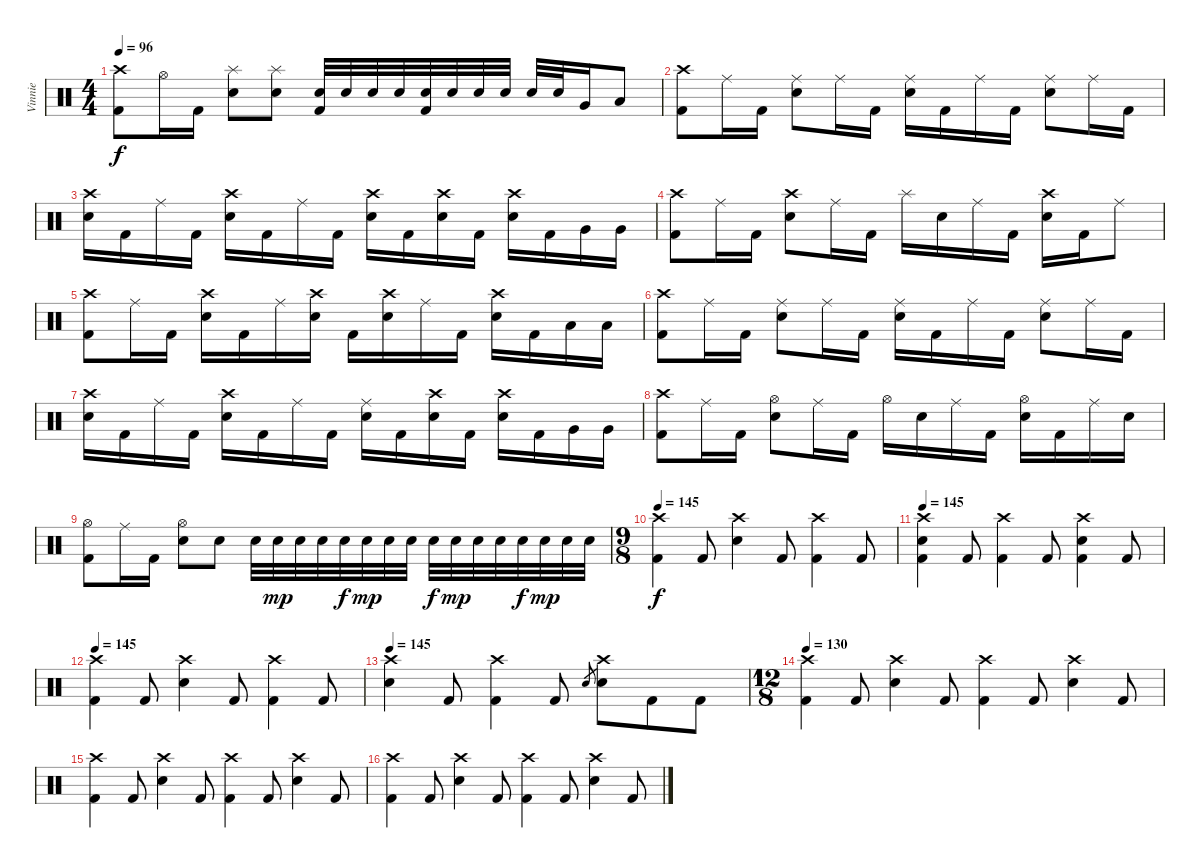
\track ("Vinnie" "Vinnie") {instrument percussion}
\staff {score}
\articulation defaults
\ts (4 4)
\tempo 96
\clef neutral
\ks c
("Crash high (hit)" "Kick (hit) 2").8{dy f} "Hi-Hat (open)".16 "Kick (hit) 2".16 ("Splash (hit)" "Electric Snare (hit)").8 ("Splash (hit)" "Electric Snare (hit)").8 ("Electric Snare (hit)" "Kick (hit) 2").32 "Electric Snare (hit)".32 "Electric Snare (hit)".32 "Electric Snare (hit)".32 ("Electric Snare (hit)" "Kick (hit) 2").32 "Electric Snare (hit)".32 "Electric Snare (hit)".32 "Electric Snare (hit)".32 "Electric Snare (hit)".32 "Electric Snare (hit)".32 "Very Low Tom (hit)".16 "Low Floor Tom (hit)".8 |
("Crash high (hit)" "Kick (hit) 2").8 "Ride (middle)".16 "Kick (hit) 2".16 ("Ride (middle)" "Electric Snare (hit)").8 "Ride (middle)".16 "Kick (hit) 2".16 ("Ride (middle)" "Electric Snare (hit)").16 "Kick (hit) 2".16 "Ride (middle)".16 "Kick (hit) 2".16 ("Ride (middle)" "Electric Snare (hit)").8 "Ride (middle)".16 "Kick (hit) 2".16 |
("Crash high (hit)" "Electric Snare (hit)").16 "Kick (hit) 2".16 "Ride (middle)".16 "Kick (hit) 2".16 ("Crash high (hit)" "Electric Snare (hit)").16 "Kick (hit) 2".16 "Ride (middle)".16 "Kick (hit) 2".16 ("Crash high (hit)" "Electric Snare (hit)").16 "Kick (hit) 2".16 ("Crash high (hit)" "Electric Snare (hit)").16 "Kick (hit) 2".16 ("Crash high (hit)" "Electric Snare (hit)").16 "Kick (hit) 2".16 "Very Low Tom (hit)".16 "Very Low Tom (hit)".16 |
("Crash high (hit)" "Kick (hit) 2").8 "Ride (middle)".16 "Kick (hit) 2".16 ("Crash high (hit)" "Electric Snare (hit)").8 "Ride (middle)".16 "Kick (hit) 2".16 "Splash (hit)".16 "Electric Snare (hit)".16 "Ride (middle)".16 "Kick (hit) 2".16 ("Crash high (hit)" "Electric Snare (hit)").16 "Kick (hit) 2".16 "Ride (middle)".8 |
("Crash high (hit)" "Kick (hit) 2").8 "Ride (middle)".16 "Kick (hit) 2".16 ("Crash high (hit)" "Electric Snare (hit)").16 "Kick (hit) 2".16 "Ride (middle)".16 ("Crash high (hit)" "Electric Snare (hit)").16 "Kick (hit) 2".16 ("Crash high (hit)" "Electric Snare (hit)").16 "Ride (middle)".16 "Kick (hit) 2".16 ("Crash high (hit)" "Electric Snare (hit)").16 "Kick (hit) 2".16 "Low Tom (hit)".16 "Low Tom (hit)".16 |
("Crash high (hit)" "Kick (hit) 2").8 "Ride (middle)".16 "Kick (hit) 2".16 ("Ride (middle)" "Electric Snare (hit)").8 "Ride (middle)".16 "Kick (hit) 2".16 ("Ride (middle)" "Electric Snare (hit)").16 "Kick (hit) 2".16 "Ride (middle)".16 "Kick (hit) 2".16 ("Ride (middle)" "Electric Snare (hit)").8 "Ride (middle)".16 "Kick (hit) 2".16 |
("Crash high (hit)" "Electric Snare (hit)").16 "Kick (hit) 2".16 "Ride (middle)".16 "Kick (hit) 2".16 ("Crash high (hit)" "Electric Snare (hit)").16 "Kick (hit) 2".16 "Ride (middle)".16 "Kick (hit) 2".16 ("Ride (middle)" "Electric Snare (hit)").16 "Kick (hit) 2".16 ("Crash high (hit)" "Electric Snare (hit)").16 "Kick (hit) 2".16 ("Crash high (hit)" "Electric Snare (hit)").16 "Kick (hit) 2".16 "Very Low Tom (hit)".16 "Very Low Tom (hit)".16 |
("Crash high (hit)" "Kick (hit) 2").8 "Ride (middle)".16 "Kick (hit) 2".16 ("Hi-Hat (open)" "Electric Snare (hit)").8 "Ride (middle)".16 "Kick (hit) 2".16 "Hi-Hat (open)".16 "Electric Snare (hit)".16 "Ride (middle)".16 "Kick (hit) 2".16 ("Hi-Hat (open)" "Electric Snare (hit)").16 "Kick (hit) 2".16 "Ride (middle)".16 "Electric Snare (hit)".16 |
("Hi-Hat (open)" "Kick (hit) 2").8 "Ride (middle)".16 "Kick (hit) 2".16 ("Hi-Hat (open)" "Electric Snare (hit)").8 "Electric Snare (hit)".8 "Electric Snare (hit)".32 "Electric Snare (hit)".32{dy mp} "Electric Snare (hit)".32 "Electric Snare (hit)".32 "Electric Snare (hit)".32{dy f} "Electric Snare (hit)".32{dy mp} "Electric Snare (hit)".32 "Electric Snare (hit)".32 "Electric Snare (hit)".32{dy f} "Electric Snare (hit)".32{dy mp} "Electric Snare (hit)".32 "Electric Snare (hit)".32 "Electric Snare (hit)".32{dy f} "Electric Snare (hit)".32{dy mp} "Electric Snare (hit)".32 "Electric Snare (hit)".32 |
\ts (9 8)
\tempo 145
("Crash high (hit)" "Kick (hit) 2").4{dy f} "Kick (hit) 2".8 ("Crash high (hit)" "Electric Snare (hit)").4 "Kick (hit) 2".8 ("Crash high (hit)" "Kick (hit) 2").4 "Kick (hit) 2".8 |
\tempo 145
("Crash high (hit)" "Electric Snare (hit)" "Kick (hit) 2").4 "Kick (hit) 2".8 ("Crash high (hit)" "Kick (hit) 2").4 "Kick (hit) 2".8 ("Crash high (hit)" "Electric Snare (hit)" "Kick (hit) 2").4 "Kick (hit) 2".8 |
\tempo 145
("Crash high (hit)" "Kick (hit) 2").4 "Kick (hit) 2".8 ("Crash high (hit)" "Electric Snare (hit)").4 "Kick (hit) 2".8 ("Crash high (hit)" "Kick (hit) 2").4 "Kick (hit) 2".8 |
\tempo 145
("Crash high (hit)" "Electric Snare (hit)").4 "Kick (hit) 2".8 ("Crash high (hit)" "Kick (hit) 2").4 "Kick (hit) 2".8 "Electric Snare (hit)".8{gr} ("Crash high (hit)" "Electric Snare (hit)").8 "Kick (hit) 2".8 "Kick (hit) 2".8 |
\ts (12 8)
\tempo 130
("Crash high (hit)" "Kick (hit) 2").4 "Kick (hit) 2".8 ("Crash high (hit)" "Electric Snare (hit)").4 "Kick (hit) 2".8 ("Crash high (hit)" "Kick (hit) 2").4 "Kick (hit) 2".8 ("Crash high (hit)" "Electric Snare (hit)").4 "Kick (hit) 2".8 |
("Crash high (hit)" "Kick (hit) 2").4 "Kick (hit) 2".8 ("Crash high (hit)" "Electric Snare (hit)").4 "Kick (hit) 2".8 ("Crash high (hit)" "Kick (hit) 2").4 "Kick (hit) 2".8 ("Crash high (hit)" "Electric Snare (hit)").4 "Kick (hit) 2".8 |
("Crash high (hit)" "Kick (hit) 2").4 "Kick (hit) 2".8 ("Crash high (hit)" "Electric Snare (hit)").4 "Kick (hit) 2".8 ("Crash high (hit)" "Kick (hit) 2").4 "Kick (hit) 2".8 ("Crash high (hit)" "Electric Snare (hit)").4 "Kick (hit) 2".8
